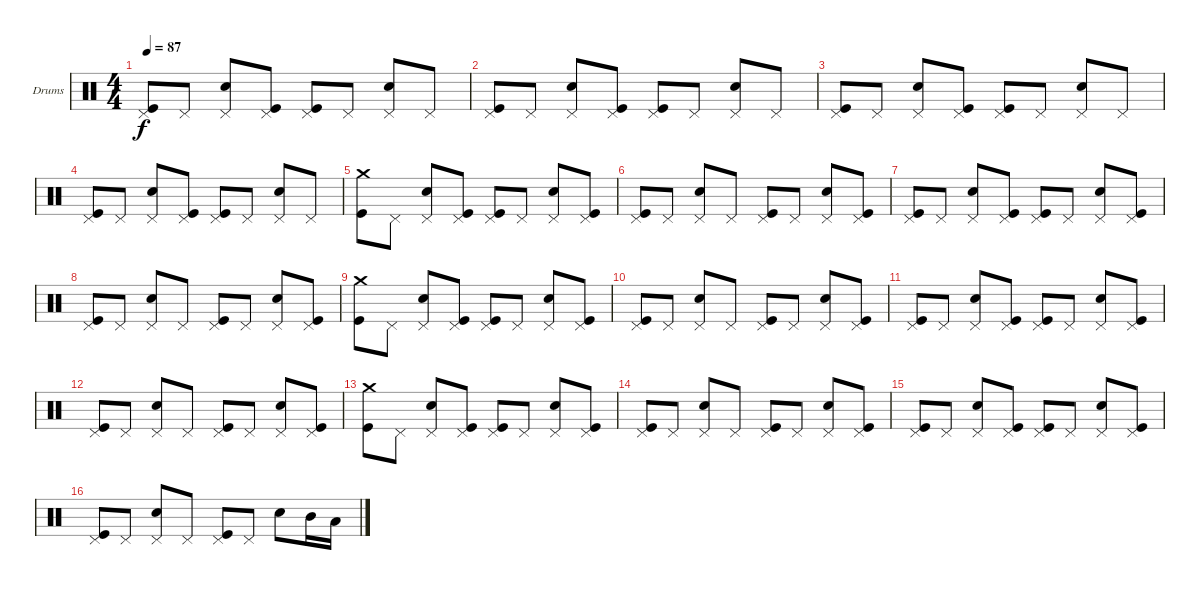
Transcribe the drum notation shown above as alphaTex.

\bracketExtendMode groupsimilarinstruments
\firstSystemTrackNameOrientation horizontal
\otherSystemsTrackNameOrientation horizontal
\track ("Drumkit" "Drums") {instrument percussion}
\staff {score}
\articulation defaults
\ts (4 4)
\tempo 87
\clef neutral
\ks c
("Pedal Hi-Hat (hit)" "Kick (hit)").8{dy f} "Pedal Hi-Hat (hit)".8 ("Pedal Hi-Hat (hit)" "Snare (hit) 2").8 ("Pedal Hi-Hat (hit)" "Kick (hit)").8 ("Pedal Hi-Hat (hit)" "Kick (hit)").8 "Pedal Hi-Hat (hit)".8 ("Pedal Hi-Hat (hit)" "Snare (hit) 2").8 "Pedal Hi-Hat (hit)".8 |
("Pedal Hi-Hat (hit)" "Kick (hit)").8 "Pedal Hi-Hat (hit)".8 ("Pedal Hi-Hat (hit)" "Snare (hit) 2").8 ("Pedal Hi-Hat (hit)" "Kick (hit)").8 ("Pedal Hi-Hat (hit)" "Kick (hit)").8 "Pedal Hi-Hat (hit)".8 ("Pedal Hi-Hat (hit)" "Snare (hit) 2").8 "Pedal Hi-Hat (hit)".8 |
("Pedal Hi-Hat (hit)" "Kick (hit)").8 "Pedal Hi-Hat (hit)".8 ("Pedal Hi-Hat (hit)" "Snare (hit) 2").8 ("Pedal Hi-Hat (hit)" "Kick (hit)").8 ("Pedal Hi-Hat (hit)" "Kick (hit)").8 "Pedal Hi-Hat (hit)".8 ("Pedal Hi-Hat (hit)" "Snare (hit) 2").8 "Pedal Hi-Hat (hit)".8 |
("Pedal Hi-Hat (hit)" "Kick (hit)").8 "Pedal Hi-Hat (hit)".8 ("Pedal Hi-Hat (hit)" "Snare (hit) 2").8 ("Pedal Hi-Hat (hit)" "Kick (hit)").8 ("Pedal Hi-Hat (hit)" "Kick (hit)").8 "Pedal Hi-Hat (hit)".8 ("Pedal Hi-Hat (hit)" "Snare (hit) 2").8 "Pedal Hi-Hat (hit)".8 |
("Crash medium (hit)" "Kick (hit)").8 "Pedal Hi-Hat (hit)".8 ("Pedal Hi-Hat (hit)" "Snare (hit) 2").8 ("Pedal Hi-Hat (hit)" "Kick (hit)").8 ("Pedal Hi-Hat (hit)" "Kick (hit)").8 "Pedal Hi-Hat (hit)".8 ("Pedal Hi-Hat (hit)" "Snare (hit) 2").8 ("Pedal Hi-Hat (hit)" "Kick (hit)").8 |
("Pedal Hi-Hat (hit)" "Kick (hit)").8 "Pedal Hi-Hat (hit)".8 ("Pedal Hi-Hat (hit)" "Snare (hit) 2").8 "Pedal Hi-Hat (hit)".8 ("Pedal Hi-Hat (hit)" "Kick (hit)").8 "Pedal Hi-Hat (hit)".8 ("Pedal Hi-Hat (hit)" "Snare (hit) 2").8 ("Pedal Hi-Hat (hit)" "Kick (hit)").8 |
("Pedal Hi-Hat (hit)" "Kick (hit)").8 "Pedal Hi-Hat (hit)".8 ("Pedal Hi-Hat (hit)" "Snare (hit) 2").8 ("Pedal Hi-Hat (hit)" "Kick (hit)").8 ("Pedal Hi-Hat (hit)" "Kick (hit)").8 "Pedal Hi-Hat (hit)".8 ("Pedal Hi-Hat (hit)" "Snare (hit) 2").8 ("Pedal Hi-Hat (hit)" "Kick (hit)").8 |
("Pedal Hi-Hat (hit)" "Kick (hit)").8 "Pedal Hi-Hat (hit)".8 ("Pedal Hi-Hat (hit)" "Snare (hit) 2").8 "Pedal Hi-Hat (hit)".8 ("Pedal Hi-Hat (hit)" "Kick (hit)").8 "Pedal Hi-Hat (hit)".8 ("Pedal Hi-Hat (hit)" "Snare (hit) 2").8 ("Pedal Hi-Hat (hit)" "Kick (hit)").8 |
("Crash medium (hit)" "Kick (hit)").8 "Pedal Hi-Hat (hit)".8 ("Pedal Hi-Hat (hit)" "Snare (hit) 2").8 ("Pedal Hi-Hat (hit)" "Kick (hit)").8 ("Pedal Hi-Hat (hit)" "Kick (hit)").8 "Pedal Hi-Hat (hit)".8 ("Pedal Hi-Hat (hit)" "Snare (hit) 2").8 ("Pedal Hi-Hat (hit)" "Kick (hit)").8 |
("Pedal Hi-Hat (hit)" "Kick (hit)").8 "Pedal Hi-Hat (hit)".8 ("Pedal Hi-Hat (hit)" "Snare (hit) 2").8 "Pedal Hi-Hat (hit)".8 ("Pedal Hi-Hat (hit)" "Kick (hit)").8 "Pedal Hi-Hat (hit)".8 ("Pedal Hi-Hat (hit)" "Snare (hit) 2").8 ("Pedal Hi-Hat (hit)" "Kick (hit)").8 |
("Pedal Hi-Hat (hit)" "Kick (hit)").8 "Pedal Hi-Hat (hit)".8 ("Pedal Hi-Hat (hit)" "Snare (hit) 2").8 ("Pedal Hi-Hat (hit)" "Kick (hit)").8 ("Pedal Hi-Hat (hit)" "Kick (hit)").8 "Pedal Hi-Hat (hit)".8 ("Pedal Hi-Hat (hit)" "Snare (hit) 2").8 ("Pedal Hi-Hat (hit)" "Kick (hit)").8 |
("Pedal Hi-Hat (hit)" "Kick (hit)").8 "Pedal Hi-Hat (hit)".8 ("Pedal Hi-Hat (hit)" "Snare (hit) 2").8 "Pedal Hi-Hat (hit)".8 ("Pedal Hi-Hat (hit)" "Kick (hit)").8 "Pedal Hi-Hat (hit)".8 ("Pedal Hi-Hat (hit)" "Snare (hit) 2").8 ("Pedal Hi-Hat (hit)" "Kick (hit)").8 |
("Crash medium (hit)" "Kick (hit)").8 "Pedal Hi-Hat (hit)".8 ("Pedal Hi-Hat (hit)" "Snare (hit) 2").8 ("Pedal Hi-Hat (hit)" "Kick (hit)").8 ("Pedal Hi-Hat (hit)" "Kick (hit)").8 "Pedal Hi-Hat (hit)".8 ("Pedal Hi-Hat (hit)" "Snare (hit) 2").8 ("Pedal Hi-Hat (hit)" "Kick (hit)").8 |
("Pedal Hi-Hat (hit)" "Kick (hit)").8 "Pedal Hi-Hat (hit)".8 ("Pedal Hi-Hat (hit)" "Snare (hit) 2").8 "Pedal Hi-Hat (hit)".8 ("Pedal Hi-Hat (hit)" "Kick (hit)").8 "Pedal Hi-Hat (hit)".8 ("Pedal Hi-Hat (hit)" "Snare (hit) 2").8 ("Pedal Hi-Hat (hit)" "Kick (hit)").8 |
("Pedal Hi-Hat (hit)" "Kick (hit)").8 "Pedal Hi-Hat (hit)".8 ("Pedal Hi-Hat (hit)" "Snare (hit) 2").8 ("Pedal Hi-Hat (hit)" "Kick (hit)").8 ("Pedal Hi-Hat (hit)" "Kick (hit)").8 "Pedal Hi-Hat (hit)".8 ("Pedal Hi-Hat (hit)" "Snare (hit) 2").8 ("Pedal Hi-Hat (hit)" "Kick (hit)").8 |
("Pedal Hi-Hat (hit)" "Kick (hit)").8 "Pedal Hi-Hat (hit)".8 ("Pedal Hi-Hat (hit)" "Snare (hit) 2").8 "Pedal Hi-Hat (hit)".8 ("Pedal Hi-Hat (hit)" "Kick (hit)").8 "Pedal Hi-Hat (hit)".8 "Snare (hit) 2".8 "Mid Tom (hit)".16 "Low Tom (hit)".16
